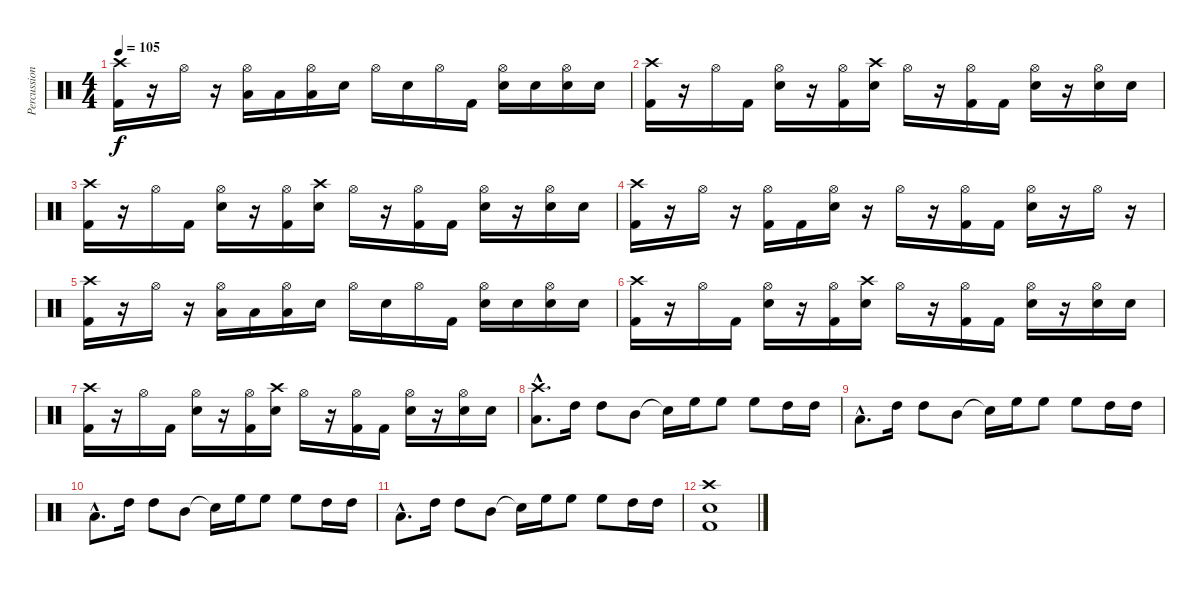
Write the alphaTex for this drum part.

\track ("Percussion" "Percussion") {instrument percussion}
\staff {score}
\articulation defaults
\ts (4 4)
\tempo 105
\clef neutral
\ks c
("Crash high (hit)" "Kick (hit) 2").16{dy f} r.16 "Hi-Hat (open)".16 r.16 ("Hi-Hat (open)" "Low Floor Tom (hit)").16 "Low Floor Tom (hit)".16 ("Hi-Hat (open)" "Low Floor Tom (hit)").16 "Snare (hit) 2".16 "Hi-Hat (open)".16 "Snare (hit) 2".16 "Hi-Hat (open)".16 "Kick (hit) 2".16 ("Hi-Hat (open)" "Snare (hit) 2").16 "Snare (hit) 2".16 ("Hi-Hat (open)" "Snare (hit) 2").16 "Snare (hit) 2".16 |
("Crash high (hit)" "Kick (hit) 2").16 r.16 "Hi-Hat (open)".16 "Kick (hit) 2".16 ("Hi-Hat (open)" "Snare (hit) 2").16 r.16 ("Hi-Hat (open)" "Kick (hit) 2").16 ("Crash high (hit)" "Snare (hit) 2").16 "Hi-Hat (open)".16 r.16 ("Hi-Hat (open)" "Kick (hit) 2").16 "Kick (hit) 2".16 ("Hi-Hat (open)" "Snare (hit) 2").16 r.16 ("Hi-Hat (open)" "Snare (hit) 2").16 "Snare (hit) 2".16 |
("Crash high (hit)" "Kick (hit) 2").16 r.16 "Hi-Hat (open)".16 "Kick (hit) 2".16 ("Hi-Hat (open)" "Snare (hit) 2").16 r.16 ("Hi-Hat (open)" "Kick (hit) 2").16 ("Crash high (hit)" "Snare (hit) 2").16 "Hi-Hat (open)".16 r.16 ("Hi-Hat (open)" "Kick (hit) 2").16 "Kick (hit) 2".16 ("Hi-Hat (open)" "Snare (hit) 2").16 r.16 ("Hi-Hat (open)" "Snare (hit) 2").16 "Snare (hit) 2".16 |
("Crash high (hit)" "Kick (hit) 2").16 r.16 "Hi-Hat (open)".16 r.16 ("Hi-Hat (open)" "Kick (hit) 2").16 "Kick (hit) 2".16 ("Hi-Hat (open)" "Snare (hit) 2").16 r.16 "Hi-Hat (open)".16 r.16 ("Hi-Hat (open)" "Kick (hit) 2").16 "Kick (hit) 2".16 ("Hi-Hat (open)" "Snare (hit) 2").16 r.16 "Hi-Hat (open)".16 r.16 |
("Crash high (hit)" "Kick (hit) 2").16 r.16 "Hi-Hat (open)".16 r.16 ("Hi-Hat (open)" "Low Floor Tom (hit)").16 "Low Floor Tom (hit)".16 ("Hi-Hat (open)" "Low Floor Tom (hit)").16 "Snare (hit) 2".16 "Hi-Hat (open)".16 "Snare (hit) 2".16 "Hi-Hat (open)".16 "Kick (hit) 2".16 ("Hi-Hat (open)" "Snare (hit) 2").16 "Snare (hit) 2".16 ("Hi-Hat (open)" "Snare (hit) 2").16 "Snare (hit) 2".16 |
("Crash high (hit)" "Kick (hit) 2").16 r.16 "Hi-Hat (open)".16 "Kick (hit) 2".16 ("Hi-Hat (open)" "Snare (hit) 2").16 r.16 ("Hi-Hat (open)" "Kick (hit) 2").16 ("Crash high (hit)" "Snare (hit) 2").16 "Hi-Hat (open)".16 r.16 ("Hi-Hat (open)" "Kick (hit) 2").16 "Kick (hit) 2".16 ("Hi-Hat (open)" "Snare (hit) 2").16 r.16 ("Hi-Hat (open)" "Snare (hit) 2").16 "Snare (hit) 2".16 |
("Crash high (hit)" "Kick (hit) 2").16 r.16 "Hi-Hat (open)".16 "Kick (hit) 2".16 ("Hi-Hat (open)" "Snare (hit) 2").16 r.16 ("Hi-Hat (open)" "Kick (hit) 2").16 ("Crash high (hit)" "Snare (hit) 2").16 "Hi-Hat (open)".16 r.16 ("Hi-Hat (open)" "Kick (hit) 2").16 "Kick (hit) 2".16 ("Hi-Hat (open)" "Snare (hit) 2").16 r.16 ("Hi-Hat (open)" "Snare (hit) 2").16 "Snare (hit) 2".16 |
("Crash high (hit)"{hac} "Low Floor Tom (hit)"{hac}).8{d} "High Tom (hit)".16 "High Tom (hit)".8 "Mid Tom (hit)".8 "Snare (hit)"{t}.16 "High Floor Tom (hit)".16 "High Floor Tom (hit)".8 "High Floor Tom (hit)".8 "High Tom (hit)".16 "High Tom (hit)".16 |
"Low Floor Tom (hit)"{hac}.8{d} "High Tom (hit)".16 "High Tom (hit)".8 "Mid Tom (hit)".8 "Snare (hit)"{t}.16 "High Floor Tom (hit)".16 "High Floor Tom (hit)".8 "High Floor Tom (hit)".8 "High Tom (hit)".16 "High Tom (hit)".16 |
"Low Floor Tom (hit)"{hac}.8{d} "High Tom (hit)".16 "High Tom (hit)".8 "Mid Tom (hit)".8 "Snare (hit)"{t}.16 "High Floor Tom (hit)".16 "High Floor Tom (hit)".8 "High Floor Tom (hit)".8 "High Tom (hit)".16 "High Tom (hit)".16 |
"Low Floor Tom (hit)"{hac}.8{d} "High Tom (hit)".16 "High Tom (hit)".8 "Mid Tom (hit)".8 "Snare (hit)"{t}.16 "High Floor Tom (hit)".16 "High Floor Tom (hit)".8 "High Floor Tom (hit)".8 "High Tom (hit)".16 "High Tom (hit)".16 |
("Crash high (hit)" "Snare (hit) 2" "Kick (hit) 2").1
